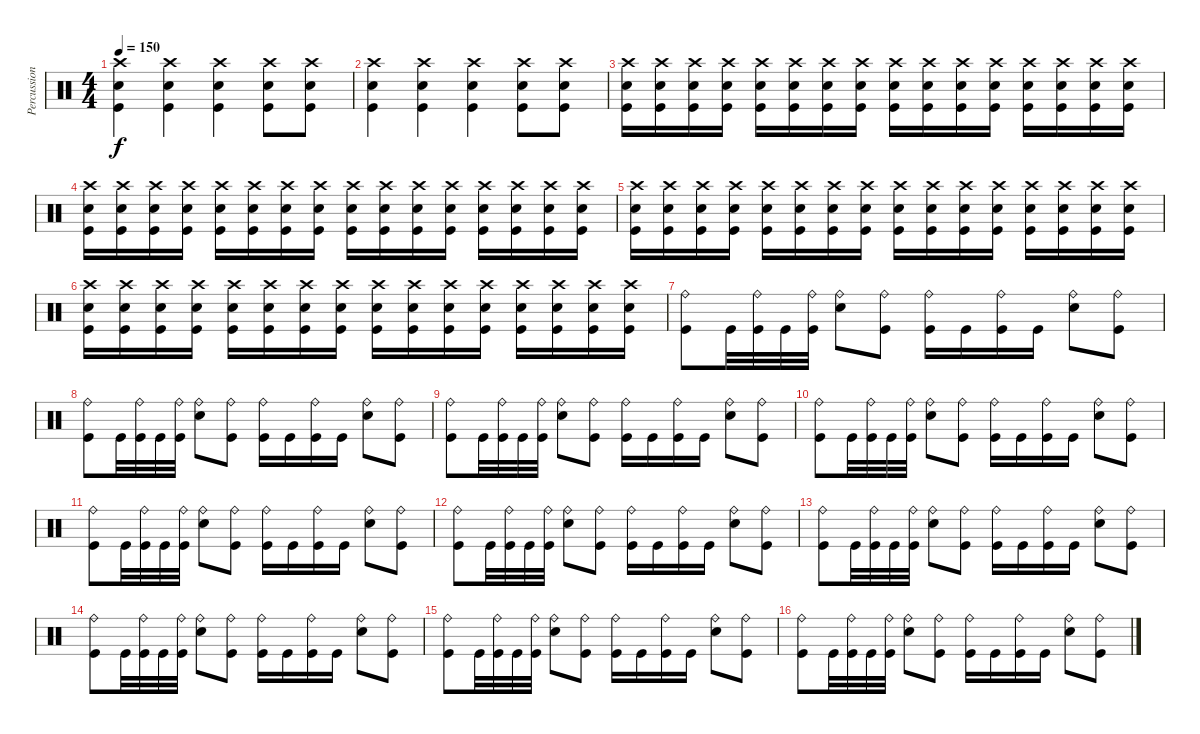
\track ("Percussion" "Percussion") {instrument percussion}
\staff {score}
\articulation defaults
\ts (4 4)
\tempo 150
\clef neutral
\ks c
("Kick (hit)" "Electric Snare (hit)" "Crash high (hit)").4{dy f} ("Kick (hit)" "Electric Snare (hit)" "Crash high (hit)").4 ("Kick (hit)" "Electric Snare (hit)" "Crash high (hit)").4 ("Kick (hit)" "Electric Snare (hit)" "Crash high (hit)").8 ("Kick (hit)" "Electric Snare (hit)" "Crash high (hit)").8 |
("Kick (hit)" "Electric Snare (hit)" "Crash high (hit)").4 ("Kick (hit)" "Electric Snare (hit)" "Crash high (hit)").4 ("Kick (hit)" "Electric Snare (hit)" "Crash high (hit)").4 ("Kick (hit)" "Electric Snare (hit)" "Crash high (hit)").8 ("Kick (hit)" "Electric Snare (hit)" "Crash high (hit)").8 |
("Kick (hit)" "Electric Snare (hit)" "Crash high (hit)").16 ("Kick (hit)" "Electric Snare (hit)" "Crash high (hit)").16 ("Kick (hit)" "Electric Snare (hit)" "Crash high (hit)").16 ("Kick (hit)" "Electric Snare (hit)" "Crash high (hit)").16 ("Kick (hit)" "Electric Snare (hit)" "Crash high (hit)").16 ("Kick (hit)" "Electric Snare (hit)" "Crash high (hit)").16 ("Kick (hit)" "Electric Snare (hit)" "Crash high (hit)").16 ("Kick (hit)" "Electric Snare (hit)" "Crash high (hit)").16 ("Kick (hit)" "Electric Snare (hit)" "Crash high (hit)").16 ("Kick (hit)" "Electric Snare (hit)" "Crash high (hit)").16 ("Kick (hit)" "Electric Snare (hit)" "Crash high (hit)").16 ("Kick (hit)" "Electric Snare (hit)" "Crash high (hit)").16 ("Kick (hit)" "Electric Snare (hit)" "Crash high (hit)").16 ("Kick (hit)" "Electric Snare (hit)" "Crash high (hit)").16 ("Kick (hit)" "Electric Snare (hit)" "Crash high (hit)").16 ("Kick (hit)" "Electric Snare (hit)" "Crash high (hit)").16 |
("Kick (hit)" "Electric Snare (hit)" "Crash high (hit)").16 ("Kick (hit)" "Electric Snare (hit)" "Crash high (hit)").16 ("Kick (hit)" "Electric Snare (hit)" "Crash high (hit)").16 ("Kick (hit)" "Electric Snare (hit)" "Crash high (hit)").16 ("Kick (hit)" "Electric Snare (hit)" "Crash high (hit)").16 ("Kick (hit)" "Electric Snare (hit)" "Crash high (hit)").16 ("Kick (hit)" "Electric Snare (hit)" "Crash high (hit)").16 ("Kick (hit)" "Electric Snare (hit)" "Crash high (hit)").16 ("Kick (hit)" "Electric Snare (hit)" "Crash high (hit)").16 ("Kick (hit)" "Electric Snare (hit)" "Crash high (hit)").16 ("Kick (hit)" "Electric Snare (hit)" "Crash high (hit)").16 ("Kick (hit)" "Electric Snare (hit)" "Crash high (hit)").16 ("Kick (hit)" "Electric Snare (hit)" "Crash high (hit)").16 ("Kick (hit)" "Electric Snare (hit)" "Crash high (hit)").16 ("Kick (hit)" "Electric Snare (hit)" "Crash high (hit)").16 ("Kick (hit)" "Electric Snare (hit)" "Crash high (hit)").16 |
("Kick (hit)" "Electric Snare (hit)" "Crash high (hit)").16 ("Kick (hit)" "Electric Snare (hit)" "Crash high (hit)").16 ("Kick (hit)" "Electric Snare (hit)" "Crash high (hit)").16 ("Kick (hit)" "Electric Snare (hit)" "Crash high (hit)").16 ("Kick (hit)" "Electric Snare (hit)" "Crash high (hit)").16 ("Kick (hit)" "Electric Snare (hit)" "Crash high (hit)").16 ("Kick (hit)" "Electric Snare (hit)" "Crash high (hit)").16 ("Kick (hit)" "Electric Snare (hit)" "Crash high (hit)").16 ("Kick (hit)" "Electric Snare (hit)" "Crash high (hit)").16 ("Kick (hit)" "Electric Snare (hit)" "Crash high (hit)").16 ("Kick (hit)" "Electric Snare (hit)" "Crash high (hit)").16 ("Kick (hit)" "Electric Snare (hit)" "Crash high (hit)").16 ("Kick (hit)" "Electric Snare (hit)" "Crash high (hit)").16 ("Kick (hit)" "Electric Snare (hit)" "Crash high (hit)").16 ("Kick (hit)" "Electric Snare (hit)" "Crash high (hit)").16 ("Kick (hit)" "Electric Snare (hit)" "Crash high (hit)").16 |
("Kick (hit)" "Electric Snare (hit)" "Crash high (hit)").16 ("Kick (hit)" "Electric Snare (hit)" "Crash high (hit)").16 ("Kick (hit)" "Electric Snare (hit)" "Crash high (hit)").16 ("Kick (hit)" "Electric Snare (hit)" "Crash high (hit)").16 ("Kick (hit)" "Electric Snare (hit)" "Crash high (hit)").16 ("Kick (hit)" "Electric Snare (hit)" "Crash high (hit)").16 ("Kick (hit)" "Electric Snare (hit)" "Crash high (hit)").16 ("Kick (hit)" "Electric Snare (hit)" "Crash high (hit)").16 ("Kick (hit)" "Electric Snare (hit)" "Crash high (hit)").16 ("Kick (hit)" "Electric Snare (hit)" "Crash high (hit)").16 ("Kick (hit)" "Electric Snare (hit)" "Crash high (hit)").16 ("Kick (hit)" "Electric Snare (hit)" "Crash high (hit)").16 ("Kick (hit)" "Electric Snare (hit)" "Crash high (hit)").16 ("Kick (hit)" "Electric Snare (hit)" "Crash high (hit)").16 ("Kick (hit)" "Electric Snare (hit)" "Crash high (hit)").16 ("Kick (hit)" "Electric Snare (hit)" "Crash high (hit)").16 |
("Kick (hit)" "Ride (bell)").8 "Kick (hit)".32 ("Kick (hit)" "Ride (bell)").32 "Kick (hit)".32 ("Kick (hit)" "Ride (bell)").32 ("Electric Snare (hit)" "Ride (bell)").8 ("Kick (hit)" "Ride (bell)").8 ("Kick (hit)" "Ride (bell)").16 "Kick (hit)".16 ("Kick (hit)" "Ride (bell)").16 "Kick (hit)".16 ("Electric Snare (hit)" "Ride (bell)").8 ("Kick (hit)" "Ride (bell)").8 |
("Kick (hit)" "Ride (bell)").8 "Kick (hit)".32 ("Kick (hit)" "Ride (bell)").32 "Kick (hit)".32 ("Kick (hit)" "Ride (bell)").32 ("Electric Snare (hit)" "Ride (bell)").8 ("Kick (hit)" "Ride (bell)").8 ("Kick (hit)" "Ride (bell)").16 "Kick (hit)".16 ("Kick (hit)" "Ride (bell)").16 "Kick (hit)".16 ("Electric Snare (hit)" "Ride (bell)").8 ("Kick (hit)" "Ride (bell)").8 |
("Kick (hit)" "Ride (bell)").8 "Kick (hit)".32 ("Kick (hit)" "Ride (bell)").32 "Kick (hit)".32 ("Kick (hit)" "Ride (bell)").32 ("Electric Snare (hit)" "Ride (bell)").8 ("Kick (hit)" "Ride (bell)").8 ("Kick (hit)" "Ride (bell)").16 "Kick (hit)".16 ("Kick (hit)" "Ride (bell)").16 "Kick (hit)".16 ("Electric Snare (hit)" "Ride (bell)").8 ("Kick (hit)" "Ride (bell)").8 |
("Kick (hit)" "Ride (bell)").8 "Kick (hit)".32 ("Kick (hit)" "Ride (bell)").32 "Kick (hit)".32 ("Kick (hit)" "Ride (bell)").32 ("Electric Snare (hit)" "Ride (bell)").8 ("Kick (hit)" "Ride (bell)").8 ("Kick (hit)" "Ride (bell)").16 "Kick (hit)".16 ("Kick (hit)" "Ride (bell)").16 "Kick (hit)".16 ("Electric Snare (hit)" "Ride (bell)").8 ("Kick (hit)" "Ride (bell)").8 |
("Kick (hit)" "Ride (bell)").8 "Kick (hit)".32 ("Kick (hit)" "Ride (bell)").32 "Kick (hit)".32 ("Kick (hit)" "Ride (bell)").32 ("Electric Snare (hit)" "Ride (bell)").8 ("Kick (hit)" "Ride (bell)").8 ("Kick (hit)" "Ride (bell)").16 "Kick (hit)".16 ("Kick (hit)" "Ride (bell)").16 "Kick (hit)".16 ("Electric Snare (hit)" "Ride (bell)").8 ("Kick (hit)" "Ride (bell)").8 |
("Kick (hit)" "Ride (bell)").8 "Kick (hit)".32 ("Kick (hit)" "Ride (bell)").32 "Kick (hit)".32 ("Kick (hit)" "Ride (bell)").32 ("Electric Snare (hit)" "Ride (bell)").8 ("Kick (hit)" "Ride (bell)").8 ("Kick (hit)" "Ride (bell)").16 "Kick (hit)".16 ("Kick (hit)" "Ride (bell)").16 "Kick (hit)".16 ("Electric Snare (hit)" "Ride (bell)").8 ("Kick (hit)" "Ride (bell)").8 |
("Kick (hit)" "Ride (bell)").8 "Kick (hit)".32 ("Kick (hit)" "Ride (bell)").32 "Kick (hit)".32 ("Kick (hit)" "Ride (bell)").32 ("Electric Snare (hit)" "Ride (bell)").8 ("Kick (hit)" "Ride (bell)").8 ("Kick (hit)" "Ride (bell)").16 "Kick (hit)".16 ("Kick (hit)" "Ride (bell)").16 "Kick (hit)".16 ("Electric Snare (hit)" "Ride (bell)").8 ("Kick (hit)" "Ride (bell)").8 |
("Kick (hit)" "Ride (bell)").8 "Kick (hit)".32 ("Kick (hit)" "Ride (bell)").32 "Kick (hit)".32 ("Kick (hit)" "Ride (bell)").32 ("Electric Snare (hit)" "Ride (bell)").8 ("Kick (hit)" "Ride (bell)").8 ("Kick (hit)" "Ride (bell)").16 "Kick (hit)".16 ("Kick (hit)" "Ride (bell)").16 "Kick (hit)".16 ("Electric Snare (hit)" "Ride (bell)").8 ("Kick (hit)" "Ride (bell)").8 |
("Kick (hit)" "Ride (bell)").8 "Kick (hit)".32 ("Kick (hit)" "Ride (bell)").32 "Kick (hit)".32 ("Kick (hit)" "Ride (bell)").32 ("Electric Snare (hit)" "Ride (bell)").8 ("Kick (hit)" "Ride (bell)").8 ("Kick (hit)" "Ride (bell)").16 "Kick (hit)".16 ("Kick (hit)" "Ride (bell)").16 "Kick (hit)".16 ("Electric Snare (hit)" "Ride (bell)").8 ("Kick (hit)" "Ride (bell)").8 |
("Kick (hit)" "Ride (bell)").8 "Kick (hit)".32 ("Kick (hit)" "Ride (bell)").32 "Kick (hit)".32 ("Kick (hit)" "Ride (bell)").32 ("Electric Snare (hit)" "Ride (bell)").8 ("Kick (hit)" "Ride (bell)").8 ("Kick (hit)" "Ride (bell)").16 "Kick (hit)".16 ("Kick (hit)" "Ride (bell)").16 "Kick (hit)".16 ("Electric Snare (hit)" "Ride (bell)").8 ("Kick (hit)" "Ride (bell)").8
